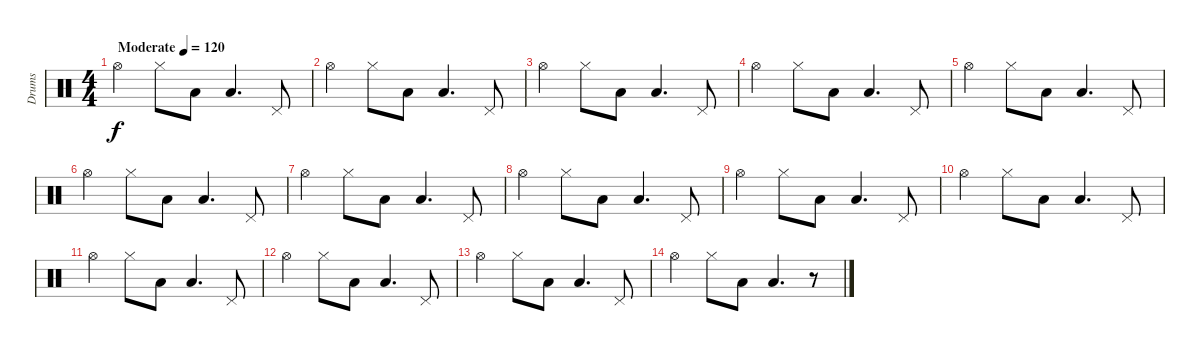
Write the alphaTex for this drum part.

\track ("Drums" "Drums") {instrument percussion}
\staff {score}
\articulation defaults
\ts (4 4)
\tempo (120 "Moderate")
\clef neutral
\ks c "Hi-Hat (open)".4{dy f volume 0} "Hi-Hat (closed)".8{volume 13} "Low Floor Tom (hit)".8 "Low Tom (hit)".4{d} "Pedal Hi-Hat (hit)".8
|
"Hi-Hat (open)".4 "Hi-Hat (closed)".8 "Low Floor Tom (hit)".8 "Low Tom (hit)".4{d} "Pedal Hi-Hat (hit)".8 |
"Hi-Hat (open)".4 "Hi-Hat (closed)".8 "Low Floor Tom (hit)".8 "Low Tom (hit)".4{d} "Pedal Hi-Hat (hit)".8 |
"Hi-Hat (open)".4 "Hi-Hat (closed)".8 "Low Floor Tom (hit)".8 "Low Tom (hit)".4{d} "Pedal Hi-Hat (hit)".8 |
"Hi-Hat (open)".4 "Hi-Hat (closed)".8 "Low Floor Tom (hit)".8 "Low Tom (hit)".4{d} "Pedal Hi-Hat (hit)".8 |
"Hi-Hat (open)".4 "Hi-Hat (closed)".8 "Low Floor Tom (hit)".8 "Low Tom (hit)".4{d} "Pedal Hi-Hat (hit)".8 |
"Hi-Hat (open)".4 "Hi-Hat (closed)".8 "Low Floor Tom (hit)".8 "Low Tom (hit)".4{d} "Pedal Hi-Hat (hit)".8 |
"Hi-Hat (open)".4 "Hi-Hat (closed)".8 "Low Floor Tom (hit)".8 "Low Tom (hit)".4{d} "Pedal Hi-Hat (hit)".8 |
"Hi-Hat (open)".4 "Hi-Hat (closed)".8 "Low Floor Tom (hit)".8 "Low Tom (hit)".4{d} "Pedal Hi-Hat (hit)".8 |
"Hi-Hat (open)".4 "Hi-Hat (closed)".8 "Low Floor Tom (hit)".8 "Low Tom (hit)".4{d} "Pedal Hi-Hat (hit)".8 |
"Hi-Hat (open)".4 "Hi-Hat (closed)".8 "Low Floor Tom (hit)".8 "Low Tom (hit)".4{d} "Pedal Hi-Hat (hit)".8 |
"Hi-Hat (open)".4 "Hi-Hat (closed)".8 "Low Floor Tom (hit)".8 "Low Tom (hit)".4{d} "Pedal Hi-Hat (hit)".8 |
"Hi-Hat (open)".4 "Hi-Hat (closed)".8 "Low Floor Tom (hit)".8 "Low Tom (hit)".4{d} "Pedal Hi-Hat (hit)".8 |
"Hi-Hat (open)".4 "Hi-Hat (closed)".8 "Low Floor Tom (hit)".8 "Low Tom (hit)".4{d} r.8
